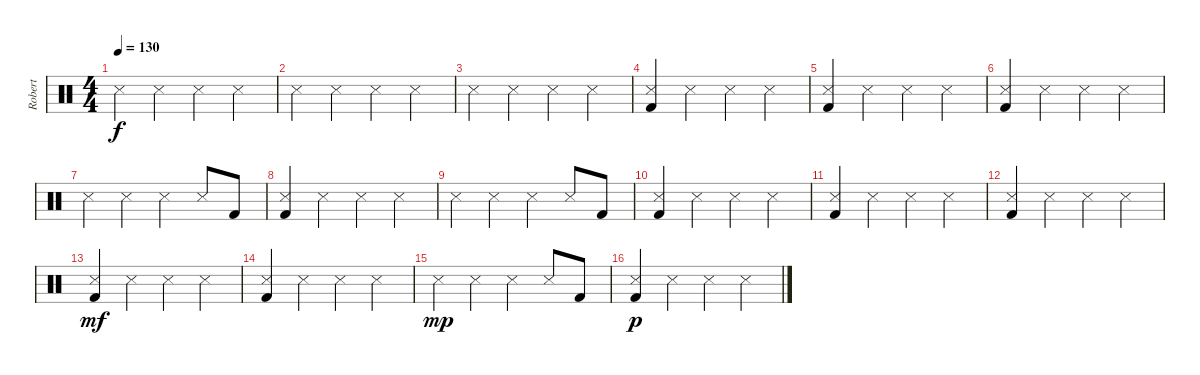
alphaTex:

\track ("Robert" "Robert") {instrument percussion}
\staff {score}
\articulation defaults
\ts (4 4)
\tempo 130
\clef neutral
\ks c "Snare (side stick) 3".4{dy f} "Snare (side stick) 3".4 "Snare (side stick) 3".4 "Snare (side stick) 3".4
|
"Snare (side stick) 3".4 "Snare (side stick) 3".4 "Snare (side stick) 3".4 "Snare (side stick) 3".4 |
"Snare (side stick) 3".4 "Snare (side stick) 3".4 "Snare (side stick) 3".4 "Snare (side stick) 3".4 |
("Snare (side stick) 3" "Kick (hit) 2").4 "Snare (side stick) 3".4 "Snare (side stick) 3".4 "Snare (side stick) 3".4 |
("Snare (side stick) 3" "Kick (hit) 2").4 "Snare (side stick) 3".4 "Snare (side stick) 3".4 "Snare (side stick) 3".4 |
("Snare (side stick) 3" "Kick (hit) 2").4 "Snare (side stick) 3".4 "Snare (side stick) 3".4 "Snare (side stick) 3".4 |
"Snare (side stick) 3".4 "Snare (side stick) 3".4 "Snare (side stick) 3".4 "Snare (side stick) 3".8 "Kick (hit) 2".8 |
("Snare (side stick) 3" "Kick (hit) 2").4 "Snare (side stick) 3".4 "Snare (side stick) 3".4 "Snare (side stick) 3".4 |
"Snare (side stick) 3".4 "Snare (side stick) 3".4 "Snare (side stick) 3".4 "Snare (side stick) 3".8 "Kick (hit) 2".8 |
("Snare (side stick) 3" "Kick (hit) 2").4 "Snare (side stick) 3".4 "Snare (side stick) 3".4 "Snare (side stick) 3".4 |
("Snare (side stick) 3" "Kick (hit) 2").4 "Snare (side stick) 3".4 "Snare (side stick) 3".4 "Snare (side stick) 3".4 |
("Snare (side stick) 3" "Kick (hit) 2").4 "Snare (side stick) 3".4 "Snare (side stick) 3".4 "Snare (side stick) 3".4 |
("Snare (side stick) 3" "Kick (hit) 2").4{dy mf} "Snare (side stick) 3".4 "Snare (side stick) 3".4 "Snare (side stick) 3".4 |
("Snare (side stick) 3" "Kick (hit) 2").4 "Snare (side stick) 3".4 "Snare (side stick) 3".4 "Snare (side stick) 3".4 |
"Snare (side stick) 3".4{dy mp} "Snare (side stick) 3".4 "Snare (side stick) 3".4 "Snare (side stick) 3".8 "Kick (hit) 2".8 |
("Snare (side stick) 3" "Kick (hit) 2").4{dy p} "Snare (side stick) 3".4 "Snare (side stick) 3".4 "Snare (side stick) 3".4
